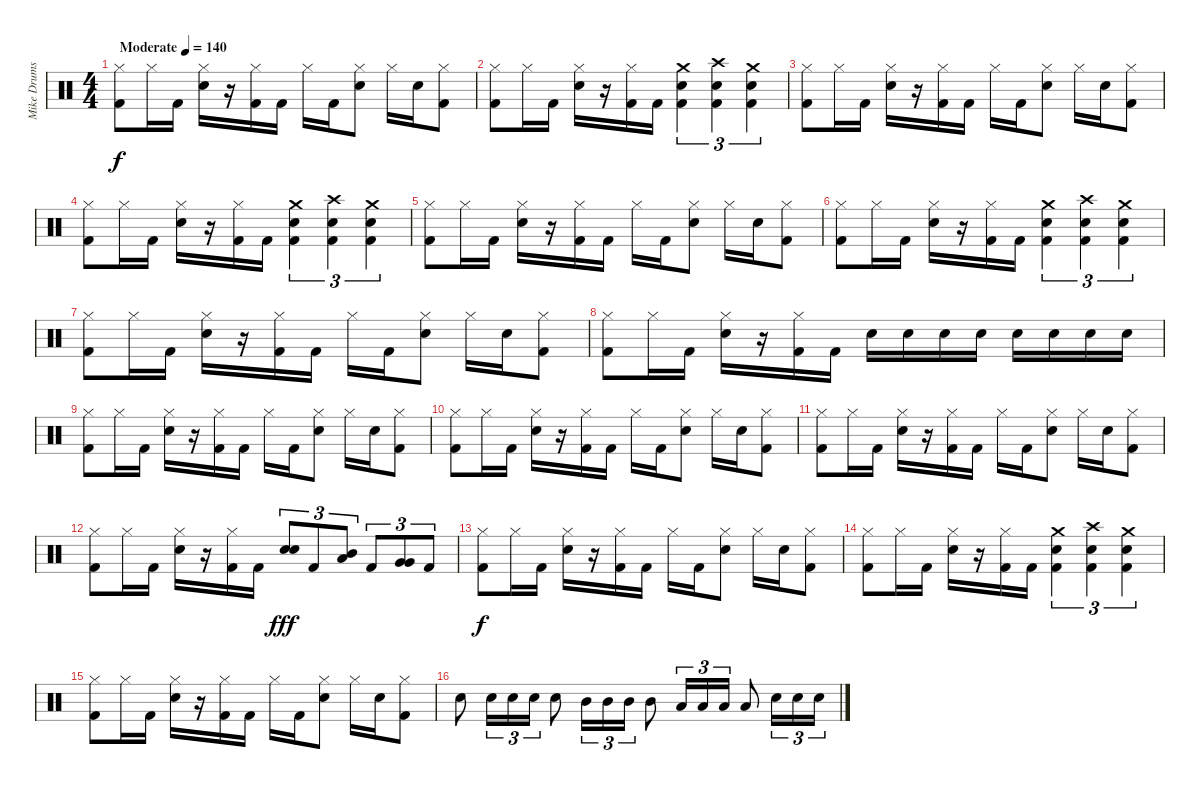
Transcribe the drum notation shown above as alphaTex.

\track ("Mike Drums" "Mike Drums") {instrument percussion}
\staff {score}
\articulation defaults
\ts (4 4)
\tempo (140 "Moderate")
\clef neutral
\ks c
("Hi-Hat (closed)" "Kick (hit) 2").8{dy f} "Hi-Hat (closed)".16 "Kick (hit) 2".16 ("Hi-Hat (closed)" "Electric Snare (hit)").16 r.16 ("Hi-Hat (closed)" "Kick (hit) 2").16 "Kick (hit) 2".16 "Hi-Hat (closed)".16 "Kick (hit) 2".16 ("Hi-Hat (closed)" "Electric Snare (hit)").8 "Hi-Hat (closed)".16 "Electric Snare (hit)".16 ("Hi-Hat (closed)" "Kick (hit) 2").8 |
("Hi-Hat (closed)" "Kick (hit) 2").8 "Hi-Hat (closed)".16 "Kick (hit) 2".16 ("Hi-Hat (closed)" "Electric Snare (hit)").16 r.16 ("Hi-Hat (closed)" "Kick (hit) 2").16 "Kick (hit) 2".16 ("Crash medium (hit)" "Electric Snare (hit)" "Kick (hit) 2").4{tu (3 2)} ("Crash high (hit)" "Electric Snare (hit)" "Kick (hit) 2").4{tu (3 2)} ("Crash medium (hit)" "Electric Snare (hit)" "Kick (hit) 2").4{tu (3 2)} |
("Hi-Hat (closed)" "Kick (hit) 2").8 "Hi-Hat (closed)".16 "Kick (hit) 2".16 ("Hi-Hat (closed)" "Electric Snare (hit)").16 r.16 ("Hi-Hat (closed)" "Kick (hit) 2").16 "Kick (hit) 2".16 "Hi-Hat (closed)".16 "Kick (hit) 2".16 ("Hi-Hat (closed)" "Electric Snare (hit)").8 "Hi-Hat (closed)".16 "Electric Snare (hit)".16 ("Hi-Hat (closed)" "Kick (hit) 2").8 |
("Hi-Hat (closed)" "Kick (hit) 2").8 "Hi-Hat (closed)".16 "Kick (hit) 2".16 ("Hi-Hat (closed)" "Electric Snare (hit)").16 r.16 ("Hi-Hat (closed)" "Kick (hit) 2").16 "Kick (hit) 2".16 ("Crash medium (hit)" "Electric Snare (hit)" "Kick (hit) 2").4{tu (3 2)} ("Crash high (hit)" "Electric Snare (hit)" "Kick (hit) 2").4{tu (3 2)} ("Crash medium (hit)" "Electric Snare (hit)" "Kick (hit) 2").4{tu (3 2)} |
("Hi-Hat (closed)" "Kick (hit) 2").8 "Hi-Hat (closed)".16 "Kick (hit) 2".16 ("Hi-Hat (closed)" "Electric Snare (hit)").16 r.16 ("Hi-Hat (closed)" "Kick (hit) 2").16 "Kick (hit) 2".16 "Hi-Hat (closed)".16 "Kick (hit) 2".16 ("Hi-Hat (closed)" "Electric Snare (hit)").8 "Hi-Hat (closed)".16 "Electric Snare (hit)".16 ("Hi-Hat (closed)" "Kick (hit) 2").8 |
("Hi-Hat (closed)" "Kick (hit) 2").8 "Hi-Hat (closed)".16 "Kick (hit) 2".16 ("Hi-Hat (closed)" "Electric Snare (hit)").16 r.16 ("Hi-Hat (closed)" "Kick (hit) 2").16 "Kick (hit) 2".16 ("Crash medium (hit)" "Electric Snare (hit)" "Kick (hit) 2").4{tu (3 2)} ("Crash high (hit)" "Electric Snare (hit)" "Kick (hit) 2").4{tu (3 2)} ("Crash medium (hit)" "Electric Snare (hit)" "Kick (hit) 2").4{tu (3 2)} |
("Hi-Hat (closed)" "Kick (hit) 2").8 "Hi-Hat (closed)".16 "Kick (hit) 2".16 ("Hi-Hat (closed)" "Electric Snare (hit)").16 r.16 ("Hi-Hat (closed)" "Kick (hit) 2").16 "Kick (hit) 2".16 "Hi-Hat (closed)".16 "Kick (hit) 2".16 ("Hi-Hat (closed)" "Electric Snare (hit)").8 "Hi-Hat (closed)".16 "Electric Snare (hit)".16 ("Hi-Hat (closed)" "Kick (hit) 2").8 |
("Hi-Hat (closed)" "Kick (hit) 2").8 "Hi-Hat (closed)".16 "Kick (hit) 2".16 ("Hi-Hat (closed)" "Electric Snare (hit)").16 r.16 ("Hi-Hat (closed)" "Kick (hit) 2").16 "Kick (hit) 2".16 "Electric Snare (hit)".16 "Electric Snare (hit)".16 "Electric Snare (hit)".16 "Electric Snare (hit)".16 "Electric Snare (hit)".16 "Electric Snare (hit)".16 "Electric Snare (hit)".16 "Electric Snare (hit)".16 |
("Hi-Hat (closed)" "Kick (hit) 2").8 "Hi-Hat (closed)".16 "Kick (hit) 2".16 ("Hi-Hat (closed)" "Electric Snare (hit)").16 r.16 ("Hi-Hat (closed)" "Kick (hit) 2").16 "Kick (hit) 2".16 "Hi-Hat (closed)".16 "Kick (hit) 2".16 ("Hi-Hat (closed)" "Electric Snare (hit)").8 "Hi-Hat (closed)".16 "Electric Snare (hit)".16 ("Hi-Hat (closed)" "Kick (hit) 2").8 |
("Hi-Hat (closed)" "Kick (hit) 2").8 "Hi-Hat (closed)".16 "Kick (hit) 2".16 ("Hi-Hat (closed)" "Electric Snare (hit)").16 r.16 ("Hi-Hat (closed)" "Kick (hit) 2").16 "Kick (hit) 2".16 "Hi-Hat (closed)".16 "Kick (hit) 2".16 ("Hi-Hat (closed)" "Electric Snare (hit)").8 "Hi-Hat (closed)".16 "Electric Snare (hit)".16 ("Hi-Hat (closed)" "Kick (hit) 2").8 |
("Hi-Hat (closed)" "Kick (hit) 2").8 "Hi-Hat (closed)".16 "Kick (hit) 2".16 ("Hi-Hat (closed)" "Electric Snare (hit)").16 r.16 ("Hi-Hat (closed)" "Kick (hit) 2").16 "Kick (hit) 2".16 "Hi-Hat (closed)".16 "Kick (hit) 2".16 ("Hi-Hat (closed)" "Electric Snare (hit)").8 "Hi-Hat (closed)".16 "Electric Snare (hit)".16 ("Hi-Hat (closed)" "Kick (hit) 2").8 |
("Hi-Hat (closed)" "Kick (hit) 2").8 "Hi-Hat (closed)".16 "Kick (hit) 2".16 ("Hi-Hat (closed)" "Electric Snare (hit)").16 r.16 ("Hi-Hat (closed)" "Kick (hit) 2").16 "Kick (hit) 2".16 ("Electric Snare (hit)" "Electric Snare (hit)").8{tu (3 2) dy fff} "Kick (hit) 2".8{tu (3 2)} ("Mid Tom (hit)" "Low Tom (hit)").8{tu (3 2)} "Kick (hit) 2".8{tu (3 2)} ("Very Low Tom (hit)" "Very Low Tom (hit)").8{tu (3 2)} "Kick (hit) 2".8{tu (3 2)} |
("Hi-Hat (closed)" "Kick (hit) 2").8{dy f} "Hi-Hat (closed)".16 "Kick (hit) 2".16 ("Hi-Hat (closed)" "Electric Snare (hit)").16 r.16 ("Hi-Hat (closed)" "Kick (hit) 2").16 "Kick (hit) 2".16 "Hi-Hat (closed)".16 "Kick (hit) 2".16 ("Hi-Hat (closed)" "Electric Snare (hit)").8 "Hi-Hat (closed)".16 "Electric Snare (hit)".16 ("Hi-Hat (closed)" "Kick (hit) 2").8 |
("Hi-Hat (closed)" "Kick (hit) 2").8 "Hi-Hat (closed)".16 "Kick (hit) 2".16 ("Hi-Hat (closed)" "Electric Snare (hit)").16 r.16 ("Hi-Hat (closed)" "Kick (hit) 2").16 "Kick (hit) 2".16 ("Crash medium (hit)" "Electric Snare (hit)" "Kick (hit) 2").4{tu (3 2)} ("Crash high (hit)" "Electric Snare (hit)" "Kick (hit) 2").4{tu (3 2)} ("Crash medium (hit)" "Electric Snare (hit)" "Kick (hit) 2").4{tu (3 2)} |
("Hi-Hat (closed)" "Kick (hit) 2").8 "Hi-Hat (closed)".16 "Kick (hit) 2".16 ("Hi-Hat (closed)" "Electric Snare (hit)").16 r.16 ("Hi-Hat (closed)" "Kick (hit) 2").16 "Kick (hit) 2".16 "Hi-Hat (closed)".16 "Kick (hit) 2".16 ("Hi-Hat (closed)" "Electric Snare (hit)").8 "Hi-Hat (closed)".16 "Electric Snare (hit)".16 ("Hi-Hat (closed)" "Kick (hit) 2").8 |
"Electric Snare (hit)".8 "Electric Snare (hit)".16{tu (3 2)} "Electric Snare (hit)".16{tu (3 2)} "Electric Snare (hit)".16{tu (3 2)} "Electric Snare (hit)".8 "Mid Tom (hit)".16{tu (3 2)} "Mid Tom (hit)".16{tu (3 2)} "Mid Tom (hit)".16{tu (3 2)} "Mid Tom (hit)".8 "Low Tom (hit)".16{tu (3 2)} "Low Tom (hit)".16{tu (3 2)} "Low Tom (hit)".16{tu (3 2)} "Low Tom (hit)".8 "Electric Snare (hit)".16{tu (3 2)} "Electric Snare (hit)".16{tu (3 2)} "Electric Snare (hit)".16{tu (3 2)}
